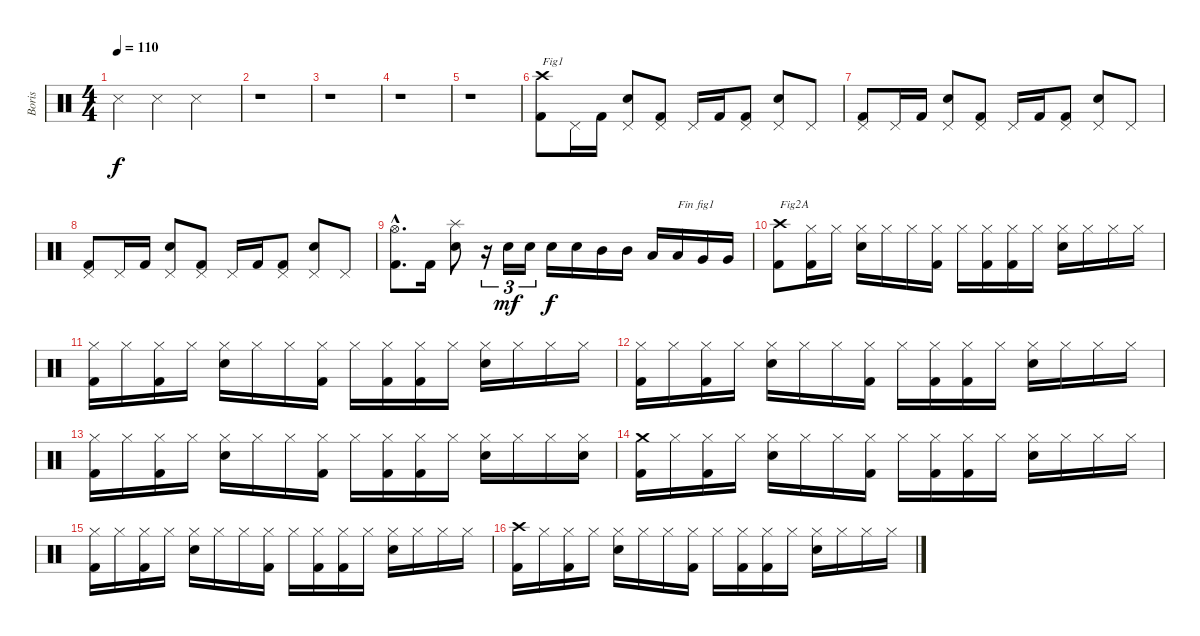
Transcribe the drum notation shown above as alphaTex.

\track ("Boris" "Boris") {instrument percussion}
\staff {score}
\articulation defaults
\ts (4 4)
\tempo 110
\clef neutral
\ks c "Metronome (hit)".4{dy f} "Metronome (hit)".4 "Metronome (hit)".2
|
r.1 |
r.1 |
r.1 |
r.1 |
("Kick (hit) 2" "Crash high (hit)").8{txt "Fig1"} "Pedal Hi-Hat (hit)".16 "Kick (hit) 2".16 ("Electric Snare (hit)" "Pedal Hi-Hat (hit)").8 ("Kick (hit) 2" "Pedal Hi-Hat (hit)").8 "Pedal Hi-Hat (hit)".16 "Kick (hit) 2".16 ("Kick (hit) 2" "Pedal Hi-Hat (hit)").8 ("Electric Snare (hit)" "Pedal Hi-Hat (hit)").8 "Pedal Hi-Hat (hit)".8 |
("Kick (hit) 2" "Pedal Hi-Hat (hit)").8 "Pedal Hi-Hat (hit)".16 "Kick (hit) 2".16 ("Electric Snare (hit)" "Pedal Hi-Hat (hit)").8 ("Kick (hit) 2" "Pedal Hi-Hat (hit)").8 "Pedal Hi-Hat (hit)".16 "Kick (hit) 2".16 ("Kick (hit) 2" "Pedal Hi-Hat (hit)").8 ("Electric Snare (hit)" "Pedal Hi-Hat (hit)").8 "Pedal Hi-Hat (hit)".8 |
("Kick (hit) 2" "Pedal Hi-Hat (hit)").8 "Pedal Hi-Hat (hit)".16 "Kick (hit) 2".16 ("Electric Snare (hit)" "Pedal Hi-Hat (hit)").8 ("Kick (hit) 2" "Pedal Hi-Hat (hit)").8 "Pedal Hi-Hat (hit)".16 "Kick (hit) 2".16 ("Kick (hit) 2" "Pedal Hi-Hat (hit)").8 ("Electric Snare (hit)" "Pedal Hi-Hat (hit)").8 "Pedal Hi-Hat (hit)".8 |
("Kick (hit) 2"{hac} "Hi-Hat (open)"{hac}).8{d} "Kick (hit) 2".16 ("Electric Snare (hit)" "Splash (hit)").8 r.16{tu (3 2)} "Electric Snare (hit)".16{tu (3 2) dy mf} "Electric Snare (hit)".16{tu (3 2)} "Electric Snare (hit)".16{dy f} "Electric Snare (hit)".16 "Mid Tom (hit)".16 "Mid Tom (hit)".16 "Low Tom (hit)".16 "Low Tom (hit)".16{txt "Fin fig1"} "Very Low Tom (hit)".16 "Very Low Tom (hit)".16 |
("Kick (hit) 2" "Crash high (hit)").8{txt "Fig2A"} ("Kick (hit) 2" "Hi-Hat (closed)").16 "Hi-Hat (closed)".16 ("Electric Snare (hit)" "Hi-Hat (closed)").16 "Hi-Hat (closed)".16 "Hi-Hat (closed)".16 ("Kick (hit) 2" "Hi-Hat (closed)").16 "Hi-Hat (closed)".16 ("Kick (hit) 2" "Hi-Hat (closed)").16 ("Kick (hit) 2" "Hi-Hat (closed)").16 "Hi-Hat (closed)".16 ("Electric Snare (hit)" "Hi-Hat (closed)").16 "Hi-Hat (closed)".16 "Hi-Hat (closed)".16 "Hi-Hat (closed)".16 |
("Kick (hit) 2" "Hi-Hat (closed)").16 "Hi-Hat (closed)".16 ("Kick (hit) 2" "Hi-Hat (closed)").16 "Hi-Hat (closed)".16 ("Electric Snare (hit)" "Hi-Hat (closed)").16 "Hi-Hat (closed)".16 "Hi-Hat (closed)".16 ("Kick (hit) 2" "Hi-Hat (closed)").16 "Hi-Hat (closed)".16 ("Kick (hit) 2" "Hi-Hat (closed)").16 ("Kick (hit) 2" "Hi-Hat (closed)").16 "Hi-Hat (closed)".16 ("Electric Snare (hit)" "Hi-Hat (closed)").16 "Hi-Hat (closed)".16 "Hi-Hat (closed)".16 "Hi-Hat (closed)".16 |
("Kick (hit) 2" "Hi-Hat (closed)").16 "Hi-Hat (closed)".16 ("Kick (hit) 2" "Hi-Hat (closed)").16 "Hi-Hat (closed)".16 ("Electric Snare (hit)" "Hi-Hat (closed)").16 "Hi-Hat (closed)".16 "Hi-Hat (closed)".16 ("Kick (hit) 2" "Hi-Hat (closed)").16 "Hi-Hat (closed)".16 ("Kick (hit) 2" "Hi-Hat (closed)").16 ("Kick (hit) 2" "Hi-Hat (closed)").16 "Hi-Hat (closed)".16 ("Electric Snare (hit)" "Hi-Hat (closed)").16 "Hi-Hat (closed)".16 "Hi-Hat (closed)".16 "Hi-Hat (closed)".16 |
("Kick (hit) 2" "Hi-Hat (closed)").16 "Hi-Hat (closed)".16 ("Kick (hit) 2" "Hi-Hat (closed)").16 "Hi-Hat (closed)".16 ("Electric Snare (hit)" "Hi-Hat (closed)").16 "Hi-Hat (closed)".16 "Hi-Hat (closed)".16 ("Kick (hit) 2" "Hi-Hat (closed)").16 "Hi-Hat (closed)".16 ("Kick (hit) 2" "Hi-Hat (closed)").16 ("Kick (hit) 2" "Hi-Hat (closed)").16 "Hi-Hat (closed)".16 ("Electric Snare (hit)" "Hi-Hat (closed)").16 "Hi-Hat (closed)".16 "Hi-Hat (closed)".16 ("Electric Snare (hit)" "Hi-Hat (closed)").16 |
("Kick (hit) 2" "Crash medium (hit)").16 "Hi-Hat (closed)".16 ("Kick (hit) 2" "Hi-Hat (closed)").16 "Hi-Hat (closed)".16 ("Electric Snare (hit)" "Hi-Hat (closed)").16 "Hi-Hat (closed)".16 "Hi-Hat (closed)".16 ("Kick (hit) 2" "Hi-Hat (closed)").16 "Hi-Hat (closed)".16 ("Kick (hit) 2" "Hi-Hat (closed)").16 ("Kick (hit) 2" "Hi-Hat (closed)").16 "Hi-Hat (closed)".16 ("Electric Snare (hit)" "Hi-Hat (closed)").16 "Hi-Hat (closed)".16 "Hi-Hat (closed)".16 "Hi-Hat (closed)".16 |
("Kick (hit) 2" "Hi-Hat (closed)").16 "Hi-Hat (closed)".16 ("Kick (hit) 2" "Hi-Hat (closed)").16 "Hi-Hat (closed)".16 ("Electric Snare (hit)" "Hi-Hat (closed)").16 "Hi-Hat (closed)".16 "Hi-Hat (closed)".16 ("Kick (hit) 2" "Hi-Hat (closed)").16 "Hi-Hat (closed)".16 ("Kick (hit) 2" "Hi-Hat (closed)").16 ("Kick (hit) 2" "Hi-Hat (closed)").16 "Hi-Hat (closed)".16 ("Electric Snare (hit)" "Hi-Hat (closed)").16 "Hi-Hat (closed)".16 "Hi-Hat (closed)".16 "Hi-Hat (closed)".16 |
("Kick (hit) 2" "Crash high (hit)").16 "Hi-Hat (closed)".16 ("Kick (hit) 2" "Hi-Hat (closed)").16 "Hi-Hat (closed)".16 ("Electric Snare (hit)" "Hi-Hat (closed)").16 "Hi-Hat (closed)".16 "Hi-Hat (closed)".16 ("Kick (hit) 2" "Hi-Hat (closed)").16 "Hi-Hat (closed)".16 ("Kick (hit) 2" "Hi-Hat (closed)").16 ("Kick (hit) 2" "Hi-Hat (closed)").16 "Hi-Hat (closed)".16 ("Electric Snare (hit)" "Hi-Hat (closed)").16 "Hi-Hat (closed)".16 "Hi-Hat (closed)".16 "Hi-Hat (closed)".16
